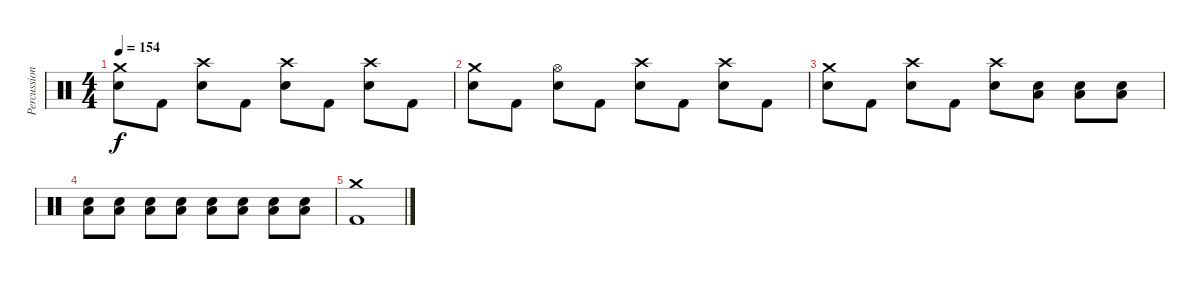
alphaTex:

\track ("Percussion" "Percussion") {instrument percussion}
\staff {score}
\articulation defaults
\ts (4 4)
\tempo 154
\clef neutral
\ks c
("Crash medium (hit)" "Snare (hit) 2").8{dy f} "Kick (hit) 2".8 ("Crash high (hit)" "Snare (hit) 2").8 "Kick (hit) 2".8 ("Crash high (hit)" "Snare (hit) 2").8 "Kick (hit) 2".8 ("Crash high (hit)" "Snare (hit) 2").8 "Kick (hit) 2".8 |
("Crash medium (hit)" "Snare (hit) 2").8 "Kick (hit) 2".8 ("Hi-Hat (open)" "Snare (hit) 2").8 "Kick (hit) 2".8 ("Crash high (hit)" "Snare (hit) 2").8 "Kick (hit) 2".8 ("Crash high (hit)" "Snare (hit) 2").8 "Kick (hit) 2".8 |
("Crash medium (hit)" "Snare (hit) 2").8 "Kick (hit) 2".8 ("Crash high (hit)" "Snare (hit) 2").8 "Kick (hit) 2".8 ("Crash high (hit)" "Snare (hit) 2").8 ("Snare (hit) 2" "Low Floor Tom (hit)").8 ("Snare (hit) 2" "Low Floor Tom (hit)").8 ("Snare (hit) 2" "Low Floor Tom (hit)").8 |
("Snare (hit) 2" "Low Floor Tom (hit)").8 ("Snare (hit) 2" "Low Floor Tom (hit)").8 ("Snare (hit) 2" "Low Floor Tom (hit)").8 ("Snare (hit) 2" "Low Floor Tom (hit)").8 ("Snare (hit) 2" "Low Floor Tom (hit)").8 ("Snare (hit) 2" "Low Floor Tom (hit)").8 ("Snare (hit) 2" "Low Floor Tom (hit)").8 ("Snare (hit) 2" "Low Floor Tom (hit)").8 |
("Crash medium (hit)" "Kick (hit) 2").1
